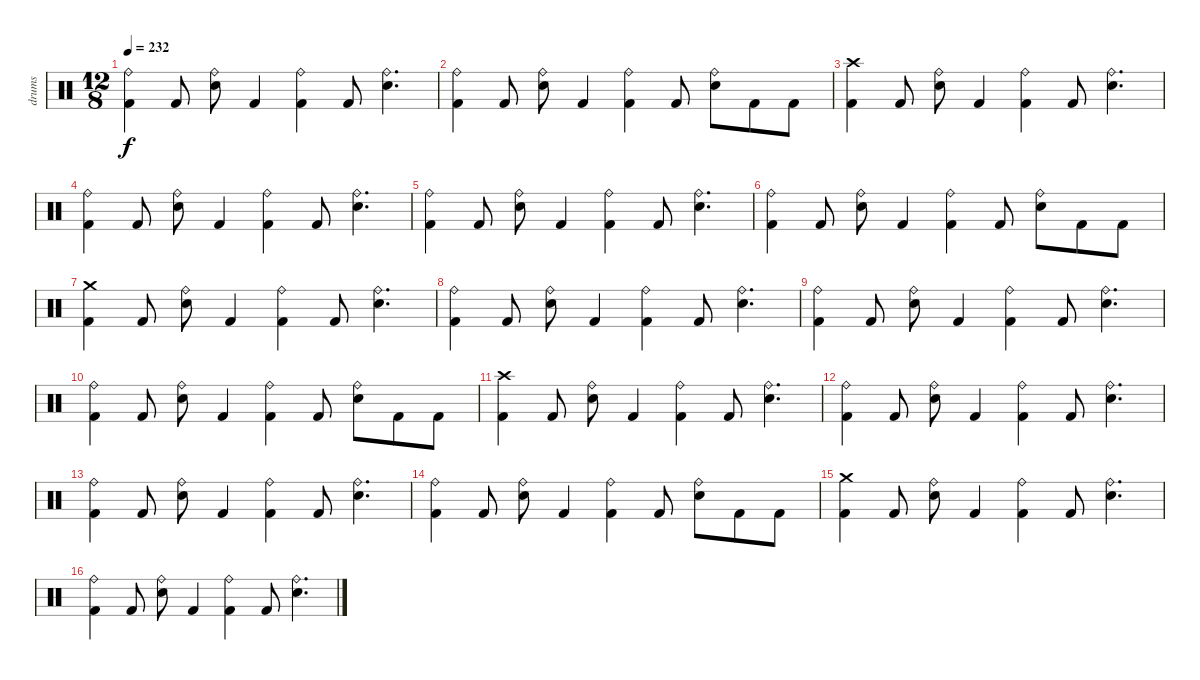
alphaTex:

\track ("drums" "drums") {instrument percussion}
\staff {score}
\articulation defaults
\ts (12 8)
\tempo 232
\clef neutral
\ks c
("Kick (hit) 2" "Ride (bell)").4{dy f} "Kick (hit) 2".8 ("Ride (bell)" "Electric Snare (hit)").8 "Kick (hit) 2".4 ("Kick (hit) 2" "Ride (bell)").4 "Kick (hit) 2".8 ("Ride (bell)" "Electric Snare (hit)").4{d} |
("Kick (hit) 2" "Ride (bell)").4 "Kick (hit) 2".8 ("Ride (bell)" "Electric Snare (hit)").8 "Kick (hit) 2".4 ("Ride (bell)" "Kick (hit) 2").4 "Kick (hit) 2".8 ("Ride (bell)" "Electric Snare (hit)").8 "Kick (hit) 2".8 "Kick (hit) 2".8 |
("Crash high (hit)" "Kick (hit) 2").4 "Kick (hit) 2".8 ("Ride (bell)" "Electric Snare (hit)").8 "Kick (hit) 2".4 ("Ride (bell)" "Kick (hit) 2").4 "Kick (hit) 2".8 ("Ride (bell)" "Electric Snare (hit)").4{d} |
("Ride (bell)" "Kick (hit) 2").4 "Kick (hit) 2".8 ("Ride (bell)" "Electric Snare (hit)").8 "Kick (hit) 2".4 ("Ride (bell)" "Kick (hit) 2").4 "Kick (hit) 2".8 ("Ride (bell)" "Electric Snare (hit)").4{d} |
("Kick (hit) 2" "Ride (bell)").4 "Kick (hit) 2".8 ("Ride (bell)" "Electric Snare (hit)").8 "Kick (hit) 2".4 ("Kick (hit) 2" "Ride (bell)").4 "Kick (hit) 2".8 ("Ride (bell)" "Electric Snare (hit)").4{d} |
("Kick (hit) 2" "Ride (bell)").4 "Kick (hit) 2".8 ("Ride (bell)" "Electric Snare (hit)").8 "Kick (hit) 2".4 ("Ride (bell)" "Kick (hit) 2").4 "Kick (hit) 2".8 ("Ride (bell)" "Electric Snare (hit)").8 "Kick (hit) 2".8 "Kick (hit) 2".8 |
("Crash medium (hit)" "Kick (hit) 2").4 "Kick (hit) 2".8 ("Ride (bell)" "Electric Snare (hit)").8 "Kick (hit) 2".4 ("Ride (bell)" "Kick (hit) 2").4 "Kick (hit) 2".8 ("Ride (bell)" "Electric Snare (hit)").4{d} |
("Ride (bell)" "Kick (hit) 2").4 "Kick (hit) 2".8 ("Ride (bell)" "Electric Snare (hit)").8 "Kick (hit) 2".4 ("Ride (bell)" "Kick (hit) 2").4 "Kick (hit) 2".8 ("Ride (bell)" "Electric Snare (hit)").4{d} |
("Kick (hit) 2" "Ride (bell)").4 "Kick (hit) 2".8 ("Ride (bell)" "Electric Snare (hit)").8 "Kick (hit) 2".4 ("Kick (hit) 2" "Ride (bell)").4 "Kick (hit) 2".8 ("Ride (bell)" "Electric Snare (hit)").4{d} |
("Kick (hit) 2" "Ride (bell)").4 "Kick (hit) 2".8 ("Ride (bell)" "Electric Snare (hit)").8 "Kick (hit) 2".4 ("Ride (bell)" "Kick (hit) 2").4 "Kick (hit) 2".8 ("Ride (bell)" "Electric Snare (hit)").8 "Kick (hit) 2".8 "Kick (hit) 2".8 |
("Crash high (hit)" "Kick (hit) 2").4 "Kick (hit) 2".8 ("Ride (bell)" "Electric Snare (hit)").8 "Kick (hit) 2".4 ("Ride (bell)" "Kick (hit) 2").4 "Kick (hit) 2".8 ("Ride (bell)" "Electric Snare (hit)").4{d} |
("Ride (bell)" "Kick (hit) 2").4 "Kick (hit) 2".8 ("Ride (bell)" "Electric Snare (hit)").8 "Kick (hit) 2".4 ("Ride (bell)" "Kick (hit) 2").4 "Kick (hit) 2".8 ("Ride (bell)" "Electric Snare (hit)").4{d} |
("Kick (hit) 2" "Ride (bell)").4 "Kick (hit) 2".8 ("Ride (bell)" "Electric Snare (hit)").8 "Kick (hit) 2".4 ("Kick (hit) 2" "Ride (bell)").4 "Kick (hit) 2".8 ("Ride (bell)" "Electric Snare (hit)").4{d} |
("Kick (hit) 2" "Ride (bell)").4 "Kick (hit) 2".8 ("Ride (bell)" "Electric Snare (hit)").8 "Kick (hit) 2".4 ("Ride (bell)" "Kick (hit) 2").4 "Kick (hit) 2".8 ("Ride (bell)" "Electric Snare (hit)").8 "Kick (hit) 2".8 "Kick (hit) 2".8 |
("Crash medium (hit)" "Kick (hit) 2").4 "Kick (hit) 2".8 ("Ride (bell)" "Electric Snare (hit)").8 "Kick (hit) 2".4 ("Ride (bell)" "Kick (hit) 2").4 "Kick (hit) 2".8 ("Ride (bell)" "Electric Snare (hit)").4{d} |
("Ride (bell)" "Kick (hit) 2").4 "Kick (hit) 2".8 ("Ride (bell)" "Electric Snare (hit)").8 "Kick (hit) 2".4 ("Ride (bell)" "Kick (hit) 2").4 "Kick (hit) 2".8 ("Ride (bell)" "Electric Snare (hit)").4{d}
